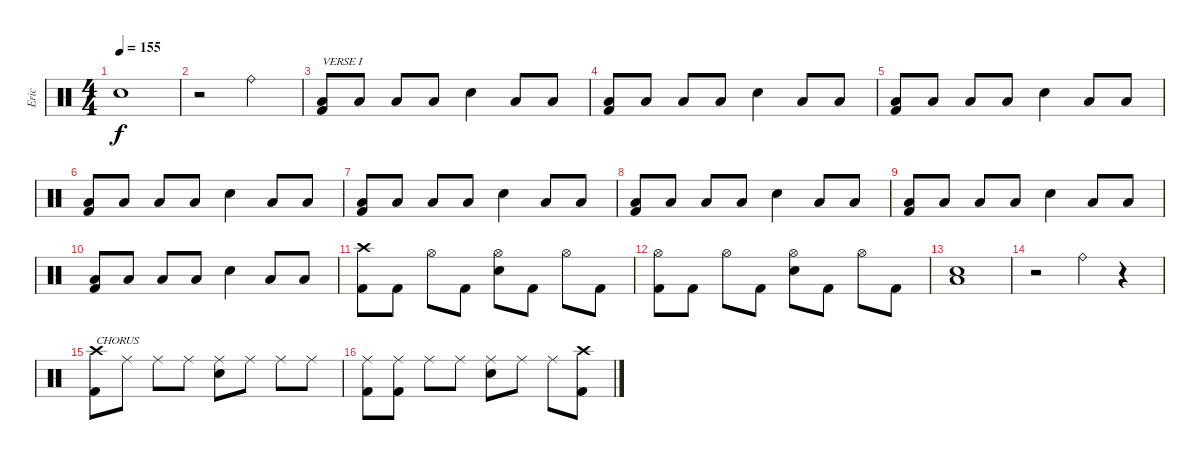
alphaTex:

\track ("Eric" "Eric") {instrument percussion}
\staff {score}
\articulation defaults
\ts (4 4)
\tempo 155
\clef neutral
\ks c "Electric Snare (hit)".1{dy f}
|
r.2 "Ride (bell)".2 |
("Low Floor Tom (hit)" "Kick (hit) 2").8{txt "VERSE I"} "Low Floor Tom (hit)".8 "Low Floor Tom (hit)".8 "Low Floor Tom (hit)".8 "Electric Snare (hit)".4 "Low Floor Tom (hit)".8 "Low Floor Tom (hit)".8 |
("Low Floor Tom (hit)" "Kick (hit) 2").8 "Low Floor Tom (hit)".8 "Low Floor Tom (hit)".8 "Low Floor Tom (hit)".8 "Electric Snare (hit)".4 "Low Floor Tom (hit)".8 "Low Floor Tom (hit)".8 |
("Low Floor Tom (hit)" "Kick (hit) 2").8 "Low Floor Tom (hit)".8 "Low Floor Tom (hit)".8 "Low Floor Tom (hit)".8 "Electric Snare (hit)".4 "Low Floor Tom (hit)".8 "Low Floor Tom (hit)".8 |
("Low Floor Tom (hit)" "Kick (hit) 2").8 "Low Floor Tom (hit)".8 "Low Floor Tom (hit)".8 "Low Floor Tom (hit)".8 "Electric Snare (hit)".4 "Low Floor Tom (hit)".8 "Low Floor Tom (hit)".8 |
("Low Floor Tom (hit)" "Kick (hit) 2").8 "Low Floor Tom (hit)".8 "Low Floor Tom (hit)".8 "Low Floor Tom (hit)".8 "Electric Snare (hit)".4 "Low Floor Tom (hit)".8 "Low Floor Tom (hit)".8 |
("Low Floor Tom (hit)" "Kick (hit) 2").8 "Low Floor Tom (hit)".8 "Low Floor Tom (hit)".8 "Low Floor Tom (hit)".8 "Electric Snare (hit)".4 "Low Floor Tom (hit)".8 "Low Floor Tom (hit)".8 |
("Low Floor Tom (hit)" "Kick (hit) 2").8 "Low Floor Tom (hit)".8 "Low Floor Tom (hit)".8 "Low Floor Tom (hit)".8 "Electric Snare (hit)".4 "Low Floor Tom (hit)".8 "Low Floor Tom (hit)".8 |
("Low Floor Tom (hit)" "Kick (hit) 2").8 "Low Floor Tom (hit)".8 "Low Floor Tom (hit)".8 "Low Floor Tom (hit)".8 "Electric Snare (hit)".4 "Low Floor Tom (hit)".8 "Low Floor Tom (hit)".8 |
("Crash high (hit)" "Kick (hit) 2").8 "Kick (hit) 2".8 "Hi-Hat (open)".8 "Kick (hit) 2".8 ("Hi-Hat (open)" "Electric Snare (hit)").8 "Kick (hit) 2".8 "Hi-Hat (open)".8 "Kick (hit) 2".8 |
("Hi-Hat (open)" "Kick (hit) 2").8 "Kick (hit) 2".8 "Hi-Hat (open)".8 "Kick (hit) 2".8 ("Hi-Hat (open)" "Electric Snare (hit)").8 "Kick (hit) 2".8 "Hi-Hat (open)".8 "Kick (hit) 2".8 |
("Low Floor Tom (hit)" "Electric Snare (hit)").1 |
r.2 "Ride (bell)".4 r.4 |
("Crash high (hit)" "Kick (hit) 2").8{txt "CHORUS"} "Ride (middle)".8 "Ride (middle)".8 "Ride (middle)".8 ("Ride (middle)" "Electric Snare (hit)").8 "Ride (middle)".8 "Ride (middle)".8 "Ride (middle)".8 |
("Ride (middle)" "Kick (hit) 2").8 ("Ride (middle)" "Kick (hit) 2").8 "Ride (middle)".8 "Ride (middle)".8 ("Ride (middle)" "Electric Snare (hit)").8 "Ride (middle)".8 "Ride (middle)".8 ("Crash high (hit)" "Kick (hit) 2").8
